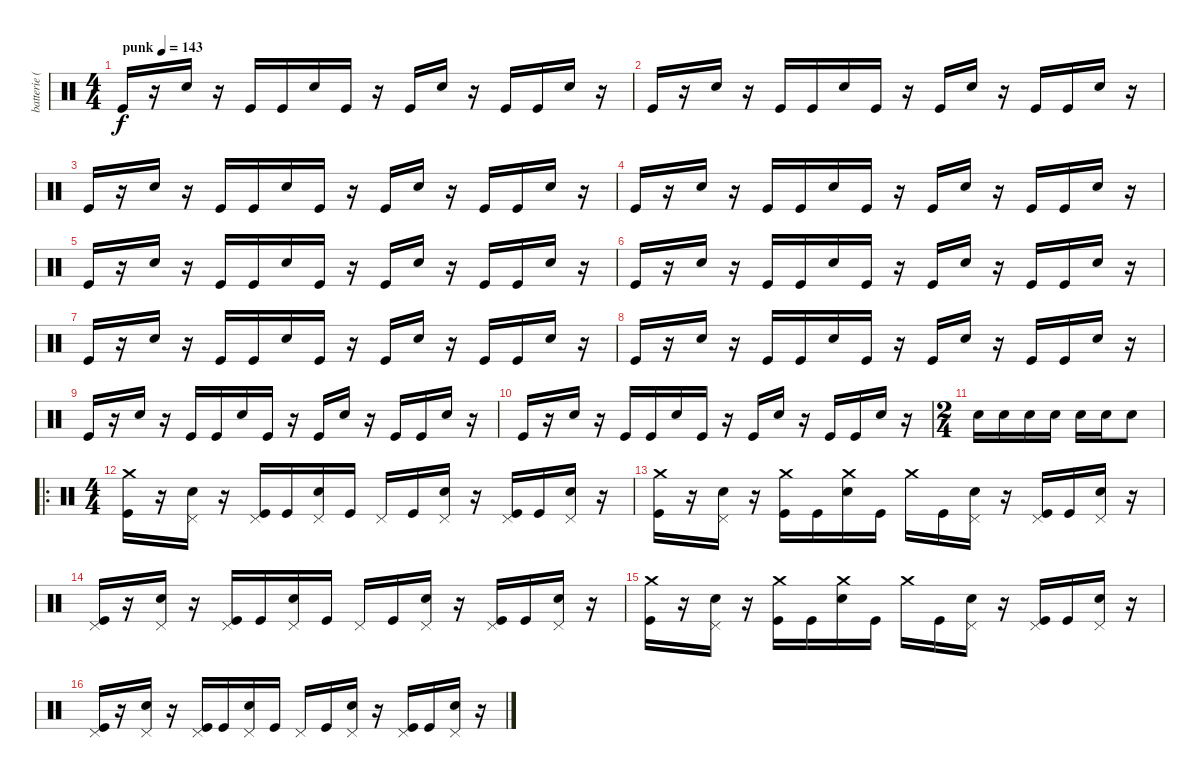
\track ("batterie ( Vinnie ) " "batterie (") {instrument percussion}
\staff {score}
\articulation defaults
\ts (4 4)
\tempo (143 "punk")
\clef neutral
\ks c "Kick (hit)".16{dy f}
r.16 "Snare (hit) 2".16 r.16 "Kick (hit)".16 "Kick (hit)".16 "Snare (hit) 2".16 "Kick (hit)".16 r.16 "Kick (hit)".16 "Snare (hit) 2".16 r.16 "Kick (hit)".16 "Kick (hit)".16 "Snare (hit) 2".16 r.16 |
"Kick (hit)".16 r.16 "Snare (hit) 2".16 r.16 "Kick (hit)".16 "Kick (hit)".16 "Snare (hit) 2".16 "Kick (hit)".16 r.16 "Kick (hit)".16 "Snare (hit) 2".16 r.16 "Kick (hit)".16 "Kick (hit)".16 "Snare (hit) 2".16 r.16 |
"Kick (hit)".16 r.16 "Snare (hit) 2".16 r.16 "Kick (hit)".16 "Kick (hit)".16 "Snare (hit) 2".16 "Kick (hit)".16 r.16 "Kick (hit)".16 "Snare (hit) 2".16 r.16 "Kick (hit)".16 "Kick (hit)".16 "Snare (hit) 2".16 r.16 |
"Kick (hit)".16 r.16 "Snare (hit) 2".16 r.16 "Kick (hit)".16 "Kick (hit)".16 "Snare (hit) 2".16 "Kick (hit)".16 r.16 "Kick (hit)".16 "Snare (hit) 2".16 r.16 "Kick (hit)".16 "Kick (hit)".16 "Snare (hit) 2".16 r.16 |
"Kick (hit)".16 r.16 "Snare (hit) 2".16 r.16 "Kick (hit)".16 "Kick (hit)".16 "Snare (hit) 2".16 "Kick (hit)".16 r.16 "Kick (hit)".16 "Snare (hit) 2".16 r.16 "Kick (hit)".16 "Kick (hit)".16 "Snare (hit) 2".16 r.16 |
"Kick (hit)".16 r.16 "Snare (hit) 2".16 r.16 "Kick (hit)".16 "Kick (hit)".16 "Snare (hit) 2".16 "Kick (hit)".16 r.16 "Kick (hit)".16 "Snare (hit) 2".16 r.16 "Kick (hit)".16 "Kick (hit)".16 "Snare (hit) 2".16 r.16 |
"Kick (hit)".16 r.16 "Snare (hit) 2".16 r.16 "Kick (hit)".16 "Kick (hit)".16 "Snare (hit) 2".16 "Kick (hit)".16 r.16 "Kick (hit)".16 "Snare (hit) 2".16 r.16 "Kick (hit)".16 "Kick (hit)".16 "Snare (hit) 2".16 r.16 |
"Kick (hit)".16 r.16 "Snare (hit) 2".16 r.16 "Kick (hit)".16 "Kick (hit)".16 "Snare (hit) 2".16 "Kick (hit)".16 r.16 "Kick (hit)".16 "Snare (hit) 2".16 r.16 "Kick (hit)".16 "Kick (hit)".16 "Snare (hit) 2".16 r.16 |
"Kick (hit)".16 r.16 "Snare (hit) 2".16 r.16 "Kick (hit)".16 "Kick (hit)".16 "Snare (hit) 2".16 "Kick (hit)".16 r.16 "Kick (hit)".16 "Snare (hit) 2".16 r.16 "Kick (hit)".16 "Kick (hit)".16 "Snare (hit) 2".16 r.16 |
"Kick (hit)".16 r.16 "Snare (hit) 2".16 r.16 "Kick (hit)".16 "Kick (hit)".16 "Snare (hit) 2".16 "Kick (hit)".16 r.16 "Kick (hit)".16 "Snare (hit) 2".16 r.16 "Kick (hit)".16 "Kick (hit)".16 "Snare (hit) 2".16 r.16 |
\ts (2 4)
"Snare (hit) 2".16 "Snare (hit) 2".16 "Snare (hit) 2".16 "Snare (hit) 2".16 "Snare (hit) 2".16 "Snare (hit) 2".16 "Snare (hit) 2".8 |
\ro
\ts (4 4)
("Crash medium (hit)" "Kick (hit)").16 r.16 ("Pedal Hi-Hat (hit)" "Snare (hit) 2").16 r.16 ("Pedal Hi-Hat (hit)" "Kick (hit)").16 "Kick (hit)".16 ("Pedal Hi-Hat (hit)" "Snare (hit) 2").16 "Kick (hit)".16 "Pedal Hi-Hat (hit)".16 "Kick (hit)".16 ("Pedal Hi-Hat (hit)" "Snare (hit) 2").16 r.16 ("Pedal Hi-Hat (hit)" "Kick (hit)").16 "Kick (hit)".16 ("Pedal Hi-Hat (hit)" "Snare (hit) 2").16 r.16 |
("Crash medium (hit)" "Kick (hit)").16 r.16 ("Pedal Hi-Hat (hit)" "Snare (hit) 2").16 r.16 ("Crash medium (hit)" "Kick (hit)").16 "Kick (hit)".16 ("Crash medium (hit)" "Snare (hit) 2").16 "Kick (hit)".16 "Crash medium (hit)".16 "Kick (hit)".16 ("Pedal Hi-Hat (hit)" "Snare (hit) 2").16 r.16 ("Pedal Hi-Hat (hit)" "Kick (hit)").16 "Kick (hit)".16 ("Pedal Hi-Hat (hit)" "Snare (hit) 2").16 r.16 |
("Pedal Hi-Hat (hit)" "Kick (hit)").16 r.16 ("Pedal Hi-Hat (hit)" "Snare (hit) 2").16 r.16 ("Pedal Hi-Hat (hit)" "Kick (hit)").16 "Kick (hit)".16 ("Pedal Hi-Hat (hit)" "Snare (hit) 2").16 "Kick (hit)".16 "Pedal Hi-Hat (hit)".16 "Kick (hit)".16 ("Pedal Hi-Hat (hit)" "Snare (hit) 2").16 r.16 ("Pedal Hi-Hat (hit)" "Kick (hit)").16 "Kick (hit)".16 ("Pedal Hi-Hat (hit)" "Snare (hit) 2").16 r.16 |
("Crash medium (hit)" "Kick (hit)").16 r.16 ("Pedal Hi-Hat (hit)" "Snare (hit) 2").16 r.16 ("Crash medium (hit)" "Kick (hit)").16 "Kick (hit)".16 ("Crash medium (hit)" "Snare (hit) 2").16 "Kick (hit)".16 "Crash medium (hit)".16 "Kick (hit)".16 ("Pedal Hi-Hat (hit)" "Snare (hit) 2").16 r.16 ("Pedal Hi-Hat (hit)" "Kick (hit)").16 "Kick (hit)".16 ("Pedal Hi-Hat (hit)" "Snare (hit) 2").16 r.16 |
("Pedal Hi-Hat (hit)" "Kick (hit)").16 r.16 ("Pedal Hi-Hat (hit)" "Snare (hit) 2").16 r.16 ("Pedal Hi-Hat (hit)" "Kick (hit)").16 "Kick (hit)".16 ("Pedal Hi-Hat (hit)" "Snare (hit) 2").16 "Kick (hit)".16 "Pedal Hi-Hat (hit)".16 "Kick (hit)".16 ("Pedal Hi-Hat (hit)" "Snare (hit) 2").16 r.16 ("Pedal Hi-Hat (hit)" "Kick (hit)").16 "Kick (hit)".16 ("Pedal Hi-Hat (hit)" "Snare (hit) 2").16 r.16
